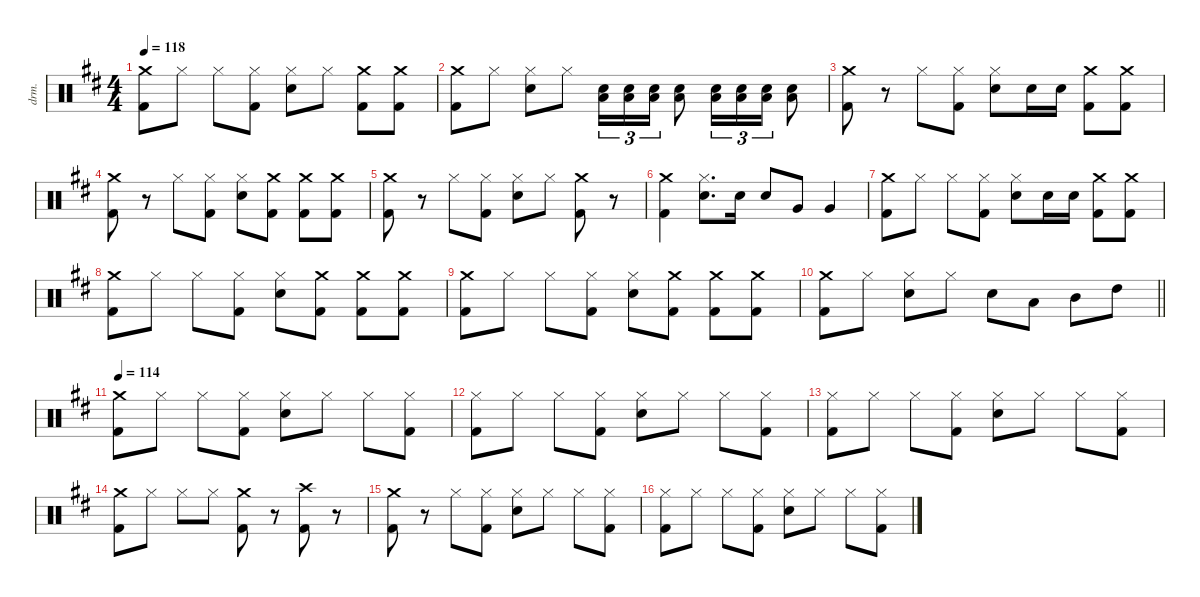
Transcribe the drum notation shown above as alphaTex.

\defaultSystemsLayout 4
\hideDynamics
\bracketExtendMode nobrackets
\otherSystemsTrackNameOrientation horizontal
\track ("Lars - Drums" "drm.") {defaultSystemsLayout 4 instrument percussion}
\staff {score}
\articulation defaults
\ts (4 4)
\tempo 118
\clef neutral
\ks bminor
("Crash medium (hit)"{acc forcenatural} "Kick (hit) 2"{acc forcenatural}).8{dy f beam Down} "Hi-Hat (closed)"{acc forcenatural}.8{beam Down} "Hi-Hat (closed)"{acc forcenatural}.8{beam Down} ("Hi-Hat (closed)"{acc forcenatural} "Kick (hit) 2"{acc forcenatural}).8{beam Down} ("Hi-Hat (closed)"{acc forcenatural} "Snare (hit) 2"{acc forcenatural}).8{beam Down} "Hi-Hat (closed)"{acc forcenatural}.8{beam Down} ("Crash medium (hit)"{acc forcenatural} "Kick (hit) 2"{acc forcenatural}).8{beam Down} ("Crash medium (hit)"{acc forcenatural} "Kick (hit) 2"{acc forcenatural}).8{beam Down} |
("Crash medium (hit)"{acc forcenatural} "Kick (hit) 2"{acc forcenatural}).8{beam Down} "Hi-Hat (closed)"{acc forcenatural}.8{beam Down} ("Hi-Hat (closed)"{acc forcenatural} "Snare (hit) 2"{acc forcenatural}).8{beam Down} "Hi-Hat (closed)"{acc forcenatural}.8{beam Down} ("Snare (hit) 2"{acc forcenatural} "Low Floor Tom (hit)"{acc forcenatural}).16{tu (3 2) beam Down} ("Snare (hit) 2"{acc forcenatural} "Low Floor Tom (hit)"{acc forcenatural}).16{tu (3 2) beam Down} ("Snare (hit) 2"{acc forcenatural} "Low Floor Tom (hit)"{acc forcenatural}).16{tu (3 2) beam Down} ("Snare (hit) 2"{acc forcenatural} "Low Floor Tom (hit)"{acc forcenatural}).8{beam Down} ("Snare (hit) 2"{acc forcenatural} "Low Floor Tom (hit)"{acc forcenatural}).16{tu (3 2) beam Down} ("Snare (hit) 2"{acc forcenatural} "Low Floor Tom (hit)"{acc forcenatural}).16{tu (3 2) beam Down} ("Snare (hit) 2"{acc forcenatural} "Low Floor Tom (hit)"{acc forcenatural}).16{tu (3 2) beam Down} ("Snare (hit) 2"{acc forcenatural} "Low Floor Tom (hit)"{acc forcenatural}).8{beam Down} |
("Crash medium (hit)"{acc forcenatural} "Kick (hit) 2"{acc forcenatural}).8{beam Down} r.8{beam Down} "Hi-Hat (closed)"{acc forcenatural}.8{beam Down} ("Hi-Hat (closed)"{acc forcenatural} "Kick (hit) 2"{acc forcenatural}).8{beam Down} ("Hi-Hat (closed)"{acc forcenatural} "Snare (hit) 2"{acc forcenatural}).8{beam Down} "Snare (hit) 2"{acc forcenatural}.16{beam Down} "Snare (hit) 2"{acc forcenatural}.16{beam Down} ("Crash medium (hit)"{acc forcenatural} "Kick (hit) 2"{acc forcenatural}).8{beam Down} ("Crash medium (hit)"{acc forcenatural} "Kick (hit) 2"{acc forcenatural}).8{beam Down} |
("Crash medium (hit)"{acc forcenatural} "Kick (hit) 2"{acc forcenatural}).8{beam Down} r.8{beam Down} "Hi-Hat (closed)"{acc forcenatural}.8{beam Down} ("Hi-Hat (closed)"{acc forcenatural} "Kick (hit) 2"{acc forcenatural}).8{beam Down} ("Hi-Hat (closed)"{acc forcenatural} "Snare (hit) 2"{acc forcenatural}).8{beam Down} ("Crash medium (hit)"{acc forcenatural} "Kick (hit) 2"{acc forcenatural}).8{beam Down} ("Crash medium (hit)"{acc forcenatural} "Kick (hit) 2"{acc forcenatural}).8{beam Down} ("Crash medium (hit)"{acc forcenatural} "Kick (hit) 2"{acc forcenatural}).8{beam Down} |
("Crash medium (hit)"{acc forcenatural} "Kick (hit) 2"{acc forcenatural}).8{beam Down} r.8{beam Down} "Hi-Hat (closed)"{acc forcenatural}.8{beam Down} ("Hi-Hat (closed)"{acc forcenatural} "Kick (hit) 2"{acc forcenatural}).8{beam Down} ("Hi-Hat (closed)"{acc forcenatural} "Snare (hit) 2"{acc forcenatural}).8{beam Down} "Hi-Hat (closed)"{acc forcenatural}.8{beam Down} ("Crash medium (hit)"{acc forcenatural} "Kick (hit) 2"{acc forcenatural}).8{beam Down} r.8{beam Down} |
("Crash medium (hit)"{acc forcenatural} "Kick (hit) 2"{acc forcenatural}).4{beam Down} ("Hi-Hat (closed)"{acc forcenatural} "Snare (hit) 2"{acc forcenatural}).8{d beam Down} "Snare (hit) 2"{acc forcenatural}.16{beam Down} "Snare (hit) 2"{acc forcenatural}.8{beam Up} "Very Low Tom (hit)"{acc forcenatural}.8{beam Up} "Very Low Tom (hit)"{acc forcenatural}.4{beam Up} |
("Crash medium (hit)"{acc forcenatural} "Kick (hit) 2"{acc forcenatural}).8{beam Down} "Hi-Hat (closed)"{acc forcenatural}.8{beam Down} "Hi-Hat (closed)"{acc forcenatural}.8{beam Down} ("Hi-Hat (closed)"{acc forcenatural} "Kick (hit) 2"{acc forcenatural}).8{beam Down} ("Hi-Hat (closed)"{acc forcenatural} "Snare (hit) 2"{acc forcenatural}).8{beam Down} "Snare (hit) 2"{acc forcenatural}.16{beam Down} "Snare (hit) 2"{acc forcenatural}.16{beam Down} ("Crash medium (hit)"{acc forcenatural} "Kick (hit) 2"{acc forcenatural}).8{beam Down} ("Crash medium (hit)"{acc forcenatural} "Kick (hit) 2"{acc forcenatural}).8{beam Down} |
("Crash medium (hit)"{acc forcenatural} "Kick (hit) 2"{acc forcenatural}).8{beam Down} "Hi-Hat (closed)"{acc forcenatural}.8{beam Down} "Hi-Hat (closed)"{acc forcenatural}.8{beam Down} ("Hi-Hat (closed)"{acc forcenatural} "Kick (hit) 2"{acc forcenatural}).8{beam Down} ("Hi-Hat (closed)"{acc forcenatural} "Snare (hit) 2"{acc forcenatural}).8{beam Down} ("Crash medium (hit)"{acc forcenatural} "Kick (hit) 2"{acc forcenatural}).8{beam Down} ("Crash medium (hit)"{acc forcenatural} "Kick (hit) 2"{acc forcenatural}).8{beam Down} ("Crash medium (hit)"{acc forcenatural} "Kick (hit) 2"{acc forcenatural}).8{beam Down} |
("Crash medium (hit)"{acc forcenatural} "Kick (hit) 2"{acc forcenatural}).8{beam Down} "Hi-Hat (closed)"{acc forcenatural}.8{beam Down} "Hi-Hat (closed)"{acc forcenatural}.8{beam Down} ("Hi-Hat (closed)"{acc forcenatural} "Kick (hit) 2"{acc forcenatural}).8{beam Down} ("Hi-Hat (closed)"{acc forcenatural} "Snare (hit) 2"{acc forcenatural}).8{beam Down} ("Crash medium (hit)"{acc forcenatural} "Kick (hit) 2"{acc forcenatural}).8{beam Down} ("Crash medium (hit)"{acc forcenatural} "Kick (hit) 2"{acc forcenatural}).8{beam Down} ("Crash medium (hit)"{acc forcenatural} "Kick (hit) 2"{acc forcenatural}).8{beam Down} |
\barLineRight lightlight
("Crash medium (hit)"{acc forcenatural} "Kick (hit) 2"{acc forcenatural}).8{beam Down} "Hi-Hat (closed)"{acc forcenatural}.8{beam Down} ("Hi-Hat (closed)"{acc forcenatural} "Snare (hit) 2"{acc forcenatural}).8{beam Down} "Hi-Hat (closed)"{acc forcenatural}.8{beam Down} "Snare (hit) 2"{acc forcenatural}.8{beam Down} "Low Tom (hit)"{acc forcenatural}.8{beam Down} "Mid Tom (hit)"{acc forcenatural}.8{beam Down} "High Tom (hit)"{acc forcenatural}.8{beam Down} |
\tempo 114
("Crash medium (hit)"{acc forcenatural} "Kick (hit) 2"{acc forcenatural}).8{beam Down} "Hi-Hat (closed)"{acc forcenatural}.8{beam Down} "Hi-Hat (closed)"{acc forcenatural}.8{beam Down} ("Hi-Hat (closed)"{acc forcenatural} "Kick (hit) 2"{acc forcenatural}).8{beam Down} ("Hi-Hat (closed)"{acc forcenatural} "Snare (hit) 2"{acc forcenatural}).8{beam Down} "Hi-Hat (closed)"{acc forcenatural}.8{beam Down} "Hi-Hat (closed)"{acc forcenatural}.8{beam Down} ("Hi-Hat (closed)"{acc forcenatural} "Kick (hit) 2"{acc forcenatural}).8{beam Down} |
("Hi-Hat (closed)"{acc forcenatural} "Kick (hit) 2"{acc forcenatural}).8{beam Down} "Hi-Hat (closed)"{acc forcenatural}.8{beam Down} "Hi-Hat (closed)"{acc forcenatural}.8{beam Down} ("Hi-Hat (closed)"{acc forcenatural} "Kick (hit) 2"{acc forcenatural}).8{beam Down} ("Hi-Hat (closed)"{acc forcenatural} "Snare (hit) 2"{acc forcenatural}).8{beam Down} "Hi-Hat (closed)"{acc forcenatural}.8{beam Down} "Hi-Hat (closed)"{acc forcenatural}.8{beam Down} ("Hi-Hat (closed)"{acc forcenatural} "Kick (hit) 2"{acc forcenatural}).8{beam Down} |
("Hi-Hat (closed)"{acc forcenatural} "Kick (hit) 2"{acc forcenatural}).8{beam Down} "Hi-Hat (closed)"{acc forcenatural}.8{beam Down} "Hi-Hat (closed)"{acc forcenatural}.8{beam Down} ("Hi-Hat (closed)"{acc forcenatural} "Kick (hit) 2"{acc forcenatural}).8{beam Down} ("Hi-Hat (closed)"{acc forcenatural} "Snare (hit) 2"{acc forcenatural}).8{beam Down} "Hi-Hat (closed)"{acc forcenatural}.8{beam Down} "Hi-Hat (closed)"{acc forcenatural}.8{beam Down} ("Hi-Hat (closed)"{acc forcenatural} "Kick (hit) 2"{acc forcenatural}).8{beam Down} |
("Crash medium (hit)"{acc forcenatural} "Kick (hit) 2"{acc forcenatural}).8{beam Down} "Hi-Hat (closed)"{acc forcenatural}.8{beam Down} "Hi-Hat (closed)"{acc forcenatural}.8{beam Down} "Hi-Hat (closed)"{acc forcenatural}.8{beam Down} ("Crash medium (hit)"{acc forcenatural} "Kick (hit) 2"{acc forcenatural}).8{beam Down} r.8{beam Down} ("Crash high (hit)"{acc forcenatural} "Kick (hit) 2"{acc forcenatural}).8{beam Down} r.8{beam Down} |
("Crash medium (hit)"{acc forcenatural} "Kick (hit) 2"{acc forcenatural}).8{beam Down} r.8{beam Down} "Hi-Hat (closed)"{acc forcenatural}.8{beam Down} ("Hi-Hat (closed)"{acc forcenatural} "Kick (hit) 2"{acc forcenatural}).8{beam Down} ("Hi-Hat (closed)"{acc forcenatural} "Snare (hit) 2"{acc forcenatural}).8{beam Down} "Hi-Hat (closed)"{acc forcenatural}.8{beam Down} "Hi-Hat (closed)"{acc forcenatural}.8{beam Down} ("Hi-Hat (closed)"{acc forcenatural} "Kick (hit) 2"{acc forcenatural}).8{beam Down} |
("Hi-Hat (closed)"{acc forcenatural} "Kick (hit) 2"{acc forcenatural}).8{beam Down} "Hi-Hat (closed)"{acc forcenatural}.8{beam Down} "Hi-Hat (closed)"{acc forcenatural}.8{beam Down} ("Hi-Hat (closed)"{acc forcenatural} "Kick (hit) 2"{acc forcenatural}).8{beam Down} ("Hi-Hat (closed)"{acc forcenatural} "Snare (hit) 2"{acc forcenatural}).8{beam Down} "Hi-Hat (closed)"{acc forcenatural}.8{beam Down} "Hi-Hat (closed)"{acc forcenatural}.8{beam Down} ("Hi-Hat (closed)"{acc forcenatural} "Kick (hit) 2"{acc forcenatural}).8{beam Down}
